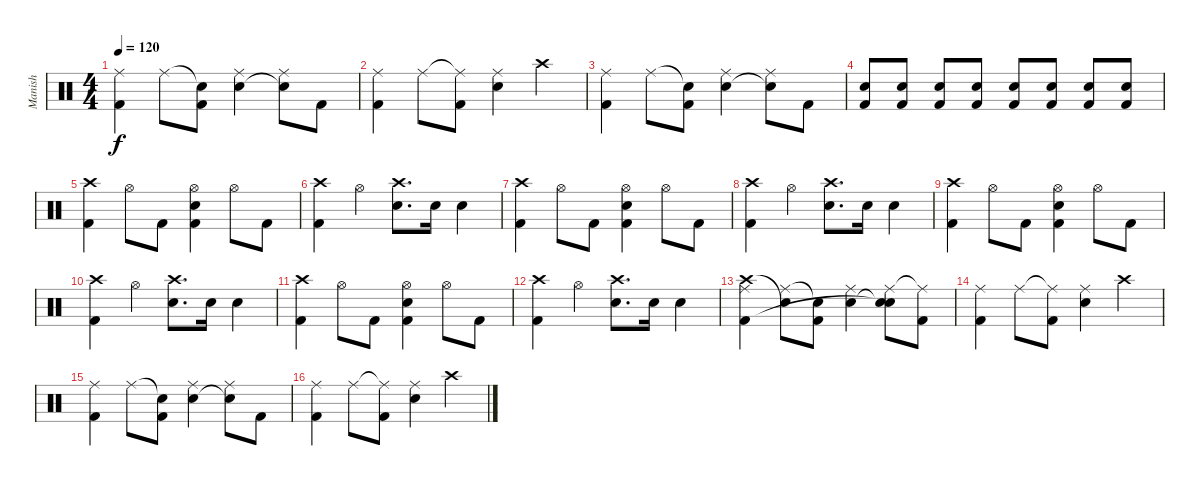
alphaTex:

\track ("Manish" "Manish") {instrument percussion}
\staff {score}
\articulation defaults
\ts (4 4)
\tempo 120
\clef neutral
\ks c
("Ride (middle)" "Kick (hit) 2").4{dy f} "Ride (middle)".8 ("Snare (hit)"{t} "Kick (hit) 2").8 ("Ride (middle)" "Snare (hit) 2").4 ("Ride (middle)" "Snare (hit)"{t}).8 "Kick (hit) 2".8 |
("Ride (middle)" "Kick (hit) 2").4 "Ride (middle)".8 ("Ride (middle)"{t} "Kick (hit) 2").8 ("Ride (middle)" "Snare (hit) 2").4 "Crash high (hit)".4 |
("Ride (middle)" "Kick (hit) 2").4 "Ride (middle)".8 ("Snare (hit)"{t} "Kick (hit) 2").8 ("Ride (middle)" "Snare (hit) 2").4 ("Ride (middle)" "Snare (hit)"{t}).8 "Kick (hit) 2".8 |
("Snare (hit) 2" "Kick (hit) 2").8 ("Snare (hit) 2" "Kick (hit) 2").8 ("Snare (hit) 2" "Kick (hit) 2").8 ("Snare (hit) 2" "Kick (hit) 2").8 ("Snare (hit) 2" "Kick (hit) 2").8 ("Snare (hit) 2" "Kick (hit) 2").8 ("Snare (hit) 2" "Kick (hit) 2").8 ("Snare (hit) 2" "Kick (hit) 2").8 |
("Crash high (hit)" "Kick (hit) 2").4 "Hi-Hat (open)".8 "Kick (hit) 2".8 ("Hi-Hat (open)" "Kick (hit) 2" "Snare (hit) 2").4 "Hi-Hat (open)".8 "Kick (hit) 2".8 |
("Crash high (hit)" "Kick (hit) 2").4 "Hi-Hat (open)".4 ("Crash high (hit)" "Snare (hit) 2").8{d} "Snare (hit) 2".16 "Snare (hit) 2".4 |
("Crash high (hit)" "Kick (hit) 2").4 "Hi-Hat (open)".8 "Kick (hit) 2".8 ("Hi-Hat (open)" "Kick (hit) 2" "Snare (hit) 2").4 "Hi-Hat (open)".8 "Kick (hit) 2".8 |
("Crash high (hit)" "Kick (hit) 2").4 "Hi-Hat (open)".4 ("Crash high (hit)" "Snare (hit) 2").8{d} "Snare (hit) 2".16 "Snare (hit) 2".4 |
("Crash high (hit)" "Kick (hit) 2").4 "Hi-Hat (open)".8 "Kick (hit) 2".8 ("Hi-Hat (open)" "Kick (hit) 2" "Snare (hit) 2").4 "Hi-Hat (open)".8 "Kick (hit) 2".8 |
("Crash high (hit)" "Kick (hit) 2").4 "Hi-Hat (open)".4 ("Crash high (hit)" "Snare (hit) 2").8{d} "Snare (hit) 2".16 "Snare (hit) 2".4 |
("Crash high (hit)" "Kick (hit) 2").4 "Hi-Hat (open)".8 "Kick (hit) 2".8 ("Hi-Hat (open)" "Kick (hit) 2" "Snare (hit) 2").4 "Hi-Hat (open)".8 "Kick (hit) 2".8 |
("Crash high (hit)" "Kick (hit) 2").4 "Hi-Hat (open)".4 ("Crash high (hit)" "Snare (hit) 2").8{d} "Snare (hit) 2".16 "Snare (hit) 2".4 |
("Ride (middle)" "Crash high (hit)" "Kick (hit) 2").4 ("Ride (middle)" "Snare (hit)"{t}).8 ("Snare (hit)"{t} "Kick (hit) 2").8 ("Ride (middle)" "Snare (hit) 2").4 ("Ride (middle)" "Snare (hit)"{t} "Snare (hit)"{t}).8 ("Ride (middle)"{t} "Kick (hit) 2").8 |
("Ride (middle)" "Kick (hit) 2").4 "Ride (middle)".8 ("Ride (middle)"{t} "Kick (hit) 2").8 ("Ride (middle)" "Snare (hit) 2").4 "Crash high (hit)".4 |
("Ride (middle)" "Kick (hit) 2").4 "Ride (middle)".8 ("Snare (hit)"{t} "Kick (hit) 2").8 ("Ride (middle)" "Snare (hit) 2").4 ("Ride (middle)" "Snare (hit)"{t}).8 "Kick (hit) 2".8 |
("Ride (middle)" "Kick (hit) 2").4 "Ride (middle)".8 ("Ride (middle)"{t} "Kick (hit) 2").8 ("Ride (middle)" "Snare (hit) 2").4 "Crash high (hit)".4
